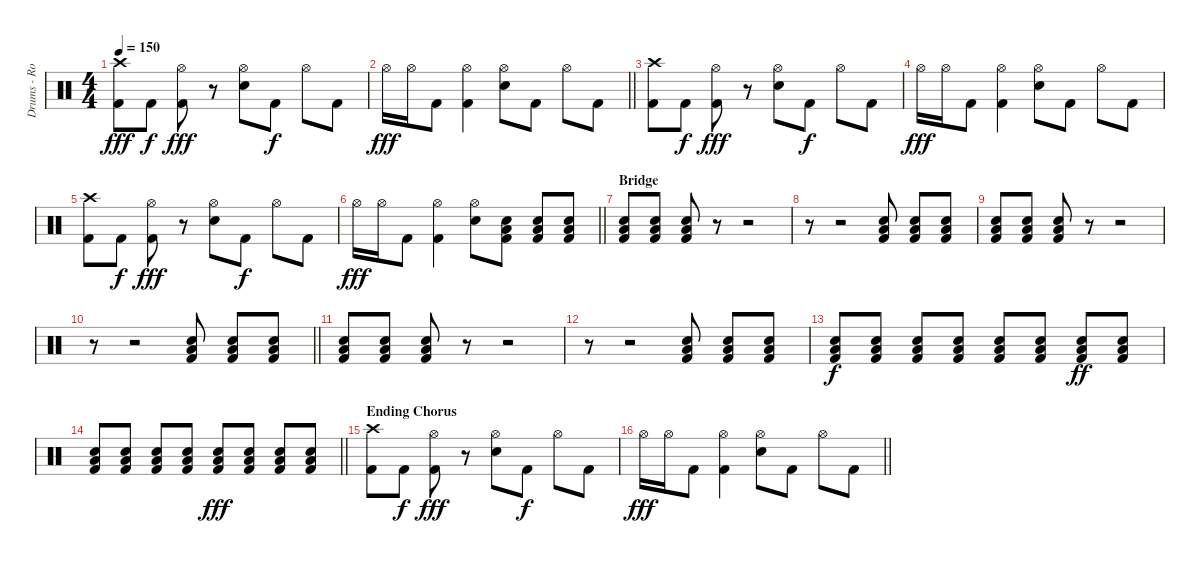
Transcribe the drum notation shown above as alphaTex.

\track ("Drums - Rob Bourdon" "Drums - Ro") {instrument percussion}
\staff {score}
\articulation defaults
\ts (4 4)
\tempo 150
\clef neutral
\ks c
("Crash high (hit)" "Kick (hit) 2").8{dy fff} "Kick (hit) 2".8{dy f} ("Hi-Hat (open)" "Kick (hit) 2").8{dy fff} r.8 ("Hi-Hat (open)" "Snare (hit) 2").8 "Kick (hit) 2".8{dy f} "Hi-Hat (open)".8 "Kick (hit) 2".8 |
\barLineRight lightlight "Hi-Hat (open)".16{dy fff} "Hi-Hat (open)".16 "Kick (hit) 2".8
("Hi-Hat (open)" "Kick (hit) 2").4 ("Hi-Hat (open)" "Snare (hit) 2").8 "Kick (hit) 2".8 "Hi-Hat (open)".8 "Kick (hit) 2".8 |
("Crash high (hit)" "Kick (hit) 2").8 "Kick (hit) 2".8{dy f} ("Hi-Hat (open)" "Kick (hit) 2").8{dy fff} r.8 ("Hi-Hat (open)" "Snare (hit) 2").8 "Kick (hit) 2".8{dy f} "Hi-Hat (open)".8 "Kick (hit) 2".8 |
"Hi-Hat (open)".16{dy fff} "Hi-Hat (open)".16 "Kick (hit) 2".8 ("Hi-Hat (open)" "Kick (hit) 2").4 ("Hi-Hat (open)" "Snare (hit) 2").8 "Kick (hit) 2".8 "Hi-Hat (open)".8 "Kick (hit) 2".8 |
("Crash high (hit)" "Kick (hit) 2").8 "Kick (hit) 2".8{dy f} ("Hi-Hat (open)" "Kick (hit) 2").8{dy fff} r.8 ("Hi-Hat (open)" "Snare (hit) 2").8 "Kick (hit) 2".8{dy f} "Hi-Hat (open)".8 "Kick (hit) 2".8 |
\barLineRight lightlight "Hi-Hat (open)".16{dy fff} "Hi-Hat (open)".16 "Kick (hit) 2".8
("Hi-Hat (open)" "Kick (hit) 2").4 ("Hi-Hat (open)" "Snare (hit) 2").8 ("Snare (hit) 2" "Low Tom (hit)" "Kick (hit) 2").8 ("Snare (hit) 2" "Low Tom (hit)" "Kick (hit) 2").8 ("Snare (hit) 2" "Low Tom (hit)" "Kick (hit) 2").8 |
\section ("" "Bridge")
("Snare (hit) 2" "Low Tom (hit)" "Kick (hit) 2").8 ("Snare (hit) 2" "Low Tom (hit)" "Kick (hit) 2").8 ("Snare (hit) 2" "Low Tom (hit)" "Kick (hit) 2").8 r.8 r.2 |
r.8 r.2 ("Snare (hit) 2" "Low Tom (hit)" "Kick (hit) 2").8 ("Snare (hit) 2" "Low Tom (hit)" "Kick (hit) 2").8 ("Snare (hit) 2" "Low Tom (hit)" "Kick (hit) 2").8 |
("Snare (hit) 2" "Low Tom (hit)" "Kick (hit) 2").8 ("Snare (hit) 2" "Low Tom (hit)" "Kick (hit) 2").8 ("Snare (hit) 2" "Low Tom (hit)" "Kick (hit) 2").8 r.8 r.2 |
\barLineRight lightlight
r.8 r.2 ("Snare (hit) 2" "Low Tom (hit)" "Kick (hit) 2").8 ("Snare (hit) 2" "Low Tom (hit)" "Kick (hit) 2").8 ("Snare (hit) 2" "Low Tom (hit)" "Kick (hit) 2").8 |
("Snare (hit) 2" "Low Tom (hit)" "Kick (hit) 2").8 ("Snare (hit) 2" "Low Tom (hit)" "Kick (hit) 2").8 ("Snare (hit) 2" "Low Tom (hit)" "Kick (hit) 2").8 r.8 r.2 |
r.8 r.2 ("Snare (hit) 2" "Low Tom (hit)" "Kick (hit) 2").8 ("Snare (hit) 2" "Low Tom (hit)" "Kick (hit) 2").8 ("Snare (hit) 2" "Low Tom (hit)" "Kick (hit) 2").8 |
("Snare (hit) 2" "Low Tom (hit)" "Kick (hit) 2").8{dy f} ("Snare (hit) 2" "Low Tom (hit)" "Kick (hit) 2").8 ("Snare (hit) 2" "Low Tom (hit)" "Kick (hit) 2").8 ("Snare (hit) 2" "Low Tom (hit)" "Kick (hit) 2").8 ("Snare (hit) 2" "Low Tom (hit)" "Kick (hit) 2").8 ("Snare (hit) 2" "Low Tom (hit)" "Kick (hit) 2").8 ("Snare (hit) 2" "Low Tom (hit)" "Kick (hit) 2").8{dy ff} ("Snare (hit) 2" "Low Tom (hit)" "Kick (hit) 2").8 |
\barLineRight lightlight
("Snare (hit) 2" "Low Tom (hit)" "Kick (hit) 2").8 ("Snare (hit) 2" "Low Tom (hit)" "Kick (hit) 2").8 ("Snare (hit) 2" "Low Tom (hit)" "Kick (hit) 2").8 ("Snare (hit) 2" "Low Tom (hit)" "Kick (hit) 2").8 ("Snare (hit) 2" "Low Tom (hit)" "Kick (hit) 2").8{dy fff} ("Snare (hit) 2" "Low Tom (hit)" "Kick (hit) 2").8 ("Snare (hit) 2" "Low Tom (hit)" "Kick (hit) 2").8 ("Snare (hit) 2" "Low Tom (hit)" "Kick (hit) 2").8 |
\section ("" "Ending Chorus")
("Crash high (hit)" "Kick (hit) 2").8 "Kick (hit) 2".8{dy f} ("Hi-Hat (open)" "Kick (hit) 2").8{dy fff} r.8 ("Hi-Hat (open)" "Snare (hit) 2").8 "Kick (hit) 2".8{dy f} "Hi-Hat (open)".8 "Kick (hit) 2".8 |
\barLineRight lightlight "Hi-Hat (open)".16{dy fff} "Hi-Hat (open)".16 "Kick (hit) 2".8
("Hi-Hat (open)" "Kick (hit) 2").4 ("Hi-Hat (open)" "Snare (hit) 2").8 "Kick (hit) 2".8 "Hi-Hat (open)".8 "Kick (hit) 2".8
